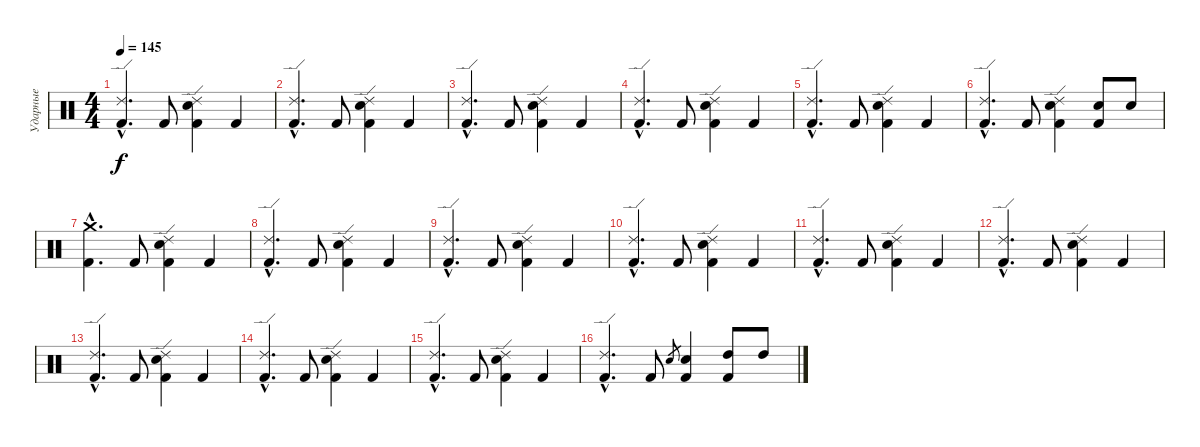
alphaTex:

\track ("Ударные" "Ударные") {instrument percussion}
\staff {score}
\articulation defaults
\ts (4 4)
\tempo 145
\clef neutral
\ks c
("Ride (edge) 2"{hac} "Kick (hit) 2"{hac}).4{d dy f} "Kick (hit) 2".8 ("Ride (edge) 2" "Electric Snare (hit)" "Kick (hit) 2").4 "Kick (hit) 2".4 |
("Ride (edge) 2"{hac} "Kick (hit) 2"{hac}).4{d} "Kick (hit) 2".8 ("Ride (edge) 2" "Electric Snare (hit)" "Kick (hit) 2").4 "Kick (hit) 2".4 |
("Ride (edge) 2"{hac} "Kick (hit) 2"{hac}).4{d} "Kick (hit) 2".8 ("Ride (edge) 2" "Electric Snare (hit)" "Kick (hit) 2").4 "Kick (hit) 2".4 |
("Ride (edge) 2"{hac} "Kick (hit) 2"{hac}).4{d} "Kick (hit) 2".8 ("Ride (edge) 2" "Electric Snare (hit)" "Kick (hit) 2").4 "Kick (hit) 2".4 |
("Ride (edge) 2"{hac} "Kick (hit) 2"{hac}).4{d} "Kick (hit) 2".8 ("Ride (edge) 2" "Electric Snare (hit)" "Kick (hit) 2").4 "Kick (hit) 2".4 |
("Ride (edge) 2"{hac} "Kick (hit) 2"{hac}).4{d} "Kick (hit) 2".8 ("Ride (edge) 2" "Electric Snare (hit)" "Kick (hit) 2").4 ("Electric Snare (hit)" "Kick (hit) 2").8 "Electric Snare (hit)".8 |
("Crash medium (hit)"{hac} "Kick (hit) 2"{hac}).4{d} "Kick (hit) 2".8 ("Ride (edge) 2" "Electric Snare (hit)" "Kick (hit) 2").4 "Kick (hit) 2".4 |
("Ride (edge) 2"{hac} "Kick (hit) 2"{hac}).4{d} "Kick (hit) 2".8 ("Ride (edge) 2" "Electric Snare (hit)" "Kick (hit) 2").4 "Kick (hit) 2".4 |
("Ride (edge) 2"{hac} "Kick (hit) 2"{hac}).4{d} "Kick (hit) 2".8 ("Ride (edge) 2" "Electric Snare (hit)" "Kick (hit) 2").4 "Kick (hit) 2".4 |
("Ride (edge) 2"{hac} "Kick (hit) 2"{hac}).4{d} "Kick (hit) 2".8 ("Ride (edge) 2" "Electric Snare (hit)" "Kick (hit) 2").4 "Kick (hit) 2".4 |
("Ride (edge) 2"{hac} "Kick (hit) 2"{hac}).4{d} "Kick (hit) 2".8 ("Ride (edge) 2" "Electric Snare (hit)" "Kick (hit) 2").4 "Kick (hit) 2".4 |
("Ride (edge) 2"{hac} "Kick (hit) 2"{hac}).4{d} "Kick (hit) 2".8 ("Ride (edge) 2" "Electric Snare (hit)" "Kick (hit) 2").4 "Kick (hit) 2".4 |
("Ride (edge) 2"{hac} "Kick (hit) 2"{hac}).4{d} "Kick (hit) 2".8 ("Ride (edge) 2" "Electric Snare (hit)" "Kick (hit) 2").4 "Kick (hit) 2".4 |
("Ride (edge) 2"{hac} "Kick (hit) 2"{hac}).4{d} "Kick (hit) 2".8 ("Ride (edge) 2" "Electric Snare (hit)" "Kick (hit) 2").4 "Kick (hit) 2".4 |
("Ride (edge) 2"{hac} "Kick (hit) 2"{hac}).4{d} "Kick (hit) 2".8 ("Ride (edge) 2" "Electric Snare (hit)" "Kick (hit) 2").4 "Kick (hit) 2".4 |
("Ride (edge) 2"{hac} "Kick (hit) 2"{hac}).4{d} "Kick (hit) 2".8 "Electric Snare (hit)".8{gr} ("Electric Snare (hit)" "Kick (hit) 2").4 ("High Tom (hit)" "Kick (hit) 2").8 "High Tom (hit)".8
